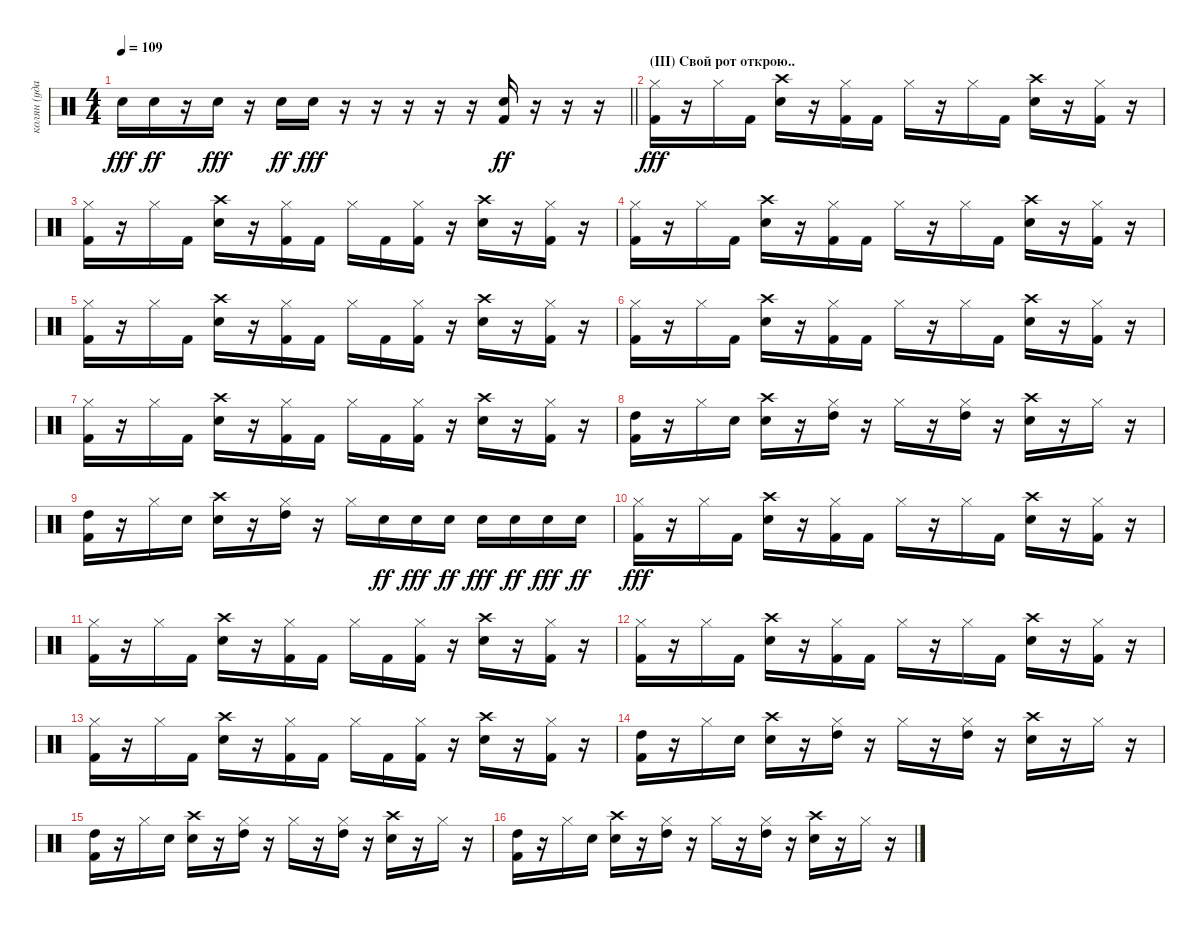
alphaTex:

\track ("колян (ударные) v2.0" "колян (уда") {instrument percussion}
\staff
\articulation defaults
\ts (4 4)
\tempo 109
\clef neutral
\barLineRight lightlight
\ks c "Electric Snare (hit)".16{dy fff} "Electric Snare (hit)".16{dy ff}
r.16 "Electric Snare (hit)".16{dy fff} r.16 "Electric Snare (hit)".16{dy ff} "Electric Snare (hit)".16{dy fff} r.16 r.16 r.16 r.16 r.16 ("Snare (hit) 2" "Kick (hit) 2").16{dy ff} r.16 r.16 r.16 |
\section ("" "(III) Свой рот открою..")
("Hi-Hat (closed)" "Kick (hit) 2").16{dy fff} r.16 "Hi-Hat (closed)".16 "Kick (hit) 2".16 ("Snare (hit) 2" "Crash high (hit)").16 r.16 ("Hi-Hat (closed)" "Kick (hit) 2").16 "Kick (hit) 2".16 "Hi-Hat (closed)".16 r.16 "Hi-Hat (closed)".16 "Kick (hit) 2".16 ("Snare (hit) 2" "Crash high (hit)").16 r.16 ("Hi-Hat (closed)" "Kick (hit) 2").16 r.16 |
("Hi-Hat (closed)" "Kick (hit) 2").16 r.16 "Hi-Hat (closed)".16 "Kick (hit) 2".16 ("Snare (hit) 2" "Crash high (hit)").16 r.16 ("Hi-Hat (closed)" "Kick (hit) 2").16 "Kick (hit) 2".16 "Hi-Hat (closed)".16 "Kick (hit) 2".16 ("Hi-Hat (closed)" "Kick (hit) 2").16 r.16 ("Snare (hit) 2" "Crash high (hit)").16 r.16 ("Hi-Hat (closed)" "Kick (hit) 2").16 r.16 |
("Hi-Hat (closed)" "Kick (hit) 2").16 r.16 "Hi-Hat (closed)".16 "Kick (hit) 2".16 ("Snare (hit) 2" "Crash high (hit)").16 r.16 ("Hi-Hat (closed)" "Kick (hit) 2").16 "Kick (hit) 2".16 "Hi-Hat (closed)".16 r.16 "Hi-Hat (closed)".16 "Kick (hit) 2".16 ("Snare (hit) 2" "Crash high (hit)").16 r.16 ("Hi-Hat (closed)" "Kick (hit) 2").16 r.16 |
("Hi-Hat (closed)" "Kick (hit) 2").16 r.16 "Hi-Hat (closed)".16 "Kick (hit) 2".16 ("Snare (hit) 2" "Crash high (hit)").16 r.16 ("Hi-Hat (closed)" "Kick (hit) 2").16 "Kick (hit) 2".16 "Hi-Hat (closed)".16 "Kick (hit) 2".16 ("Hi-Hat (closed)" "Kick (hit) 2").16 r.16 ("Snare (hit) 2" "Crash high (hit)").16 r.16 ("Hi-Hat (closed)" "Kick (hit) 2").16 r.16 |
("Hi-Hat (closed)" "Kick (hit) 2").16 r.16 "Hi-Hat (closed)".16 "Kick (hit) 2".16 ("Snare (hit) 2" "Crash high (hit)").16 r.16 ("Hi-Hat (closed)" "Kick (hit) 2").16 "Kick (hit) 2".16 "Hi-Hat (closed)".16 r.16 "Hi-Hat (closed)".16 "Kick (hit) 2".16 ("Snare (hit) 2" "Crash high (hit)").16 r.16 ("Hi-Hat (closed)" "Kick (hit) 2").16 r.16 |
("Hi-Hat (closed)" "Kick (hit) 2").16 r.16 "Hi-Hat (closed)".16 "Kick (hit) 2".16 ("Snare (hit) 2" "Crash high (hit)").16 r.16 ("Hi-Hat (closed)" "Kick (hit) 2").16 "Kick (hit) 2".16 "Hi-Hat (closed)".16 "Kick (hit) 2".16 ("Hi-Hat (closed)" "Kick (hit) 2").16 r.16 ("Snare (hit) 2" "Crash high (hit)").16 r.16 ("Hi-Hat (closed)" "Kick (hit) 2").16 r.16 |
("High Tom (hit)" "Kick (hit) 2").16 r.16 "Hi-Hat (closed)".16 "Electric Snare (hit)".16 ("Electric Snare (hit)" "Crash high (hit)").16 r.16 ("Hi-Hat (closed)" "High Tom (hit)").16 r.16 "Hi-Hat (closed)".16 r.16 ("Hi-Hat (closed)" "High Tom (hit)").16 r.16 ("Electric Snare (hit)" "Crash high (hit)").16 r.16 "Hi-Hat (closed)".16 r.16 |
("High Tom (hit)" "Kick (hit) 2").16 r.16 "Hi-Hat (closed)".16 "Electric Snare (hit)".16 ("Electric Snare (hit)" "Crash high (hit)").16 r.16 ("Hi-Hat (closed)" "High Tom (hit)").16 r.16 "Hi-Hat (closed)".16 "Electric Snare (hit)".16{dy ff} "Electric Snare (hit)".16{dy fff} "Electric Snare (hit)".16{dy ff} "Electric Snare (hit)".16{dy fff} "Electric Snare (hit)".16{dy ff} "Electric Snare (hit)".16{dy fff} "Electric Snare (hit)".16{dy ff} |
("Hi-Hat (closed)" "Kick (hit) 2").16{dy fff} r.16 "Hi-Hat (closed)".16 "Kick (hit) 2".16 ("Snare (hit) 2" "Crash high (hit)").16 r.16 ("Hi-Hat (closed)" "Kick (hit) 2").16 "Kick (hit) 2".16 "Hi-Hat (closed)".16 r.16 "Hi-Hat (closed)".16 "Kick (hit) 2".16 ("Snare (hit) 2" "Crash high (hit)").16 r.16 ("Hi-Hat (closed)" "Kick (hit) 2").16 r.16 |
("Hi-Hat (closed)" "Kick (hit) 2").16 r.16 "Hi-Hat (closed)".16 "Kick (hit) 2".16 ("Snare (hit) 2" "Crash high (hit)").16 r.16 ("Hi-Hat (closed)" "Kick (hit) 2").16 "Kick (hit) 2".16 "Hi-Hat (closed)".16 "Kick (hit) 2".16 ("Hi-Hat (closed)" "Kick (hit) 2").16 r.16 ("Snare (hit) 2" "Crash high (hit)").16 r.16 ("Hi-Hat (closed)" "Kick (hit) 2").16 r.16 |
("Hi-Hat (closed)" "Kick (hit) 2").16 r.16 "Hi-Hat (closed)".16 "Kick (hit) 2".16 ("Snare (hit) 2" "Crash high (hit)").16 r.16 ("Hi-Hat (closed)" "Kick (hit) 2").16 "Kick (hit) 2".16 "Hi-Hat (closed)".16 r.16 "Hi-Hat (closed)".16 "Kick (hit) 2".16 ("Snare (hit) 2" "Crash high (hit)").16 r.16 ("Hi-Hat (closed)" "Kick (hit) 2").16 r.16 |
("Hi-Hat (closed)" "Kick (hit) 2").16 r.16 "Hi-Hat (closed)".16 "Kick (hit) 2".16 ("Snare (hit) 2" "Crash high (hit)").16 r.16 ("Hi-Hat (closed)" "Kick (hit) 2").16 "Kick (hit) 2".16 "Hi-Hat (closed)".16 "Kick (hit) 2".16 ("Hi-Hat (closed)" "Kick (hit) 2").16 r.16 ("Snare (hit) 2" "Crash high (hit)").16 r.16 ("Hi-Hat (closed)" "Kick (hit) 2").16 r.16 |
("High Tom (hit)" "Kick (hit) 2").16 r.16 "Hi-Hat (closed)".16 "Electric Snare (hit)".16 ("Electric Snare (hit)" "Crash high (hit)").16 r.16 ("Hi-Hat (closed)" "High Tom (hit)").16 r.16 "Hi-Hat (closed)".16 r.16 ("Hi-Hat (closed)" "High Tom (hit)").16 r.16 ("Electric Snare (hit)" "Crash high (hit)").16 r.16 "Hi-Hat (closed)".16 r.16 |
("High Tom (hit)" "Kick (hit) 2").16 r.16 "Hi-Hat (closed)".16 "Electric Snare (hit)".16 ("Electric Snare (hit)" "Crash high (hit)").16 r.16 ("Hi-Hat (closed)" "High Tom (hit)").16 r.16 "Hi-Hat (closed)".16 r.16 ("Hi-Hat (closed)" "High Tom (hit)").16 r.16 ("Electric Snare (hit)" "Crash high (hit)").16 r.16 "Hi-Hat (closed)".16 r.16 |
("High Tom (hit)" "Kick (hit) 2").16 r.16 "Hi-Hat (closed)".16 "Electric Snare (hit)".16 ("Electric Snare (hit)" "Crash high (hit)").16 r.16 ("Hi-Hat (closed)" "High Tom (hit)").16 r.16 "Hi-Hat (closed)".16 r.16 ("Hi-Hat (closed)" "High Tom (hit)").16 r.16 ("Electric Snare (hit)" "Crash high (hit)").16 r.16 "Hi-Hat (closed)".16 r.16
